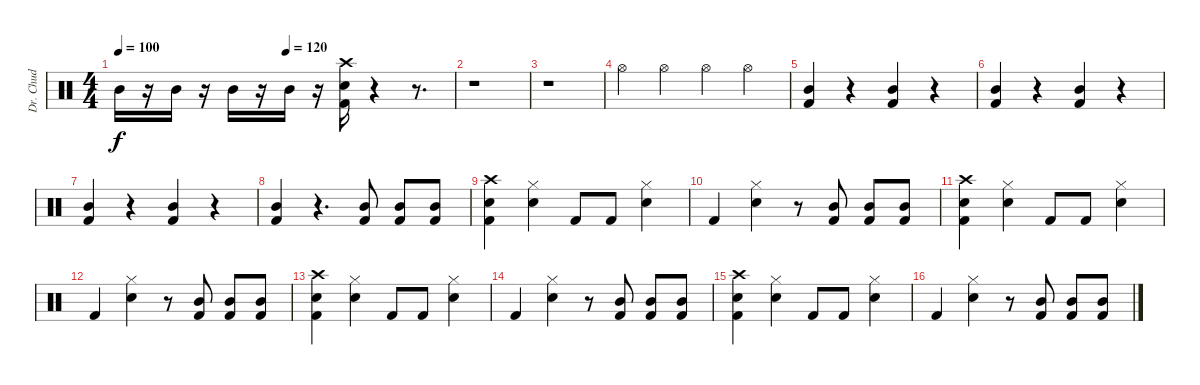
\track ("Dr. Chud" "Dr. Chud") {instrument percussion}
\staff {score}
\articulation defaults
\ts (4 4)
\tempo 100
\tempo (120 0.5)
\clef neutral
\ks c "Mid Tom (hit)".16{dy f}
r.16 "Mid Tom (hit)".16 r.16 "Mid Tom (hit)".16 r.16 "Mid Tom (hit)".16 r.16 ("Crash high (hit)" "Snare (hit) 2" "Kick (hit) 2").16 r.4 r.8{d} |
r.1 |
r.1 |
"Hi-Hat (open)".4 "Hi-Hat (open)".4 "Hi-Hat (open)".4 "Hi-Hat (open)".4 |
("Mid Tom (hit)" "Kick (hit) 2").4 r.4 ("Mid Tom (hit)" "Kick (hit) 2").4 r.4 |
("Mid Tom (hit)" "Kick (hit) 2").4 r.4 ("Mid Tom (hit)" "Kick (hit) 2").4 r.4 |
("Mid Tom (hit)" "Kick (hit) 2").4 r.4 ("Mid Tom (hit)" "Kick (hit) 2").4 r.4 |
("Mid Tom (hit)" "Kick (hit) 2").4 r.4{d} ("Mid Tom (hit)" "Kick (hit) 2").8 ("Mid Tom (hit)" "Kick (hit) 2").8 ("Mid Tom (hit)" "Kick (hit) 2").8 |
("Crash high (hit)" "Snare (hit) 2" "Kick (hit) 2").4 ("Hi-Hat (closed)" "Snare (hit) 2").4 "Kick (hit) 2".8 "Kick (hit) 2".8 ("Hi-Hat (closed)" "Snare (hit) 2").4 |
"Kick (hit) 2".4 ("Hi-Hat (closed)" "Snare (hit) 2").4 r.8 ("Mid Tom (hit)" "Kick (hit) 2").8 ("Mid Tom (hit)" "Kick (hit) 2").8 ("Mid Tom (hit)" "Kick (hit) 2").8 |
("Crash high (hit)" "Snare (hit) 2" "Kick (hit) 2").4 ("Hi-Hat (closed)" "Snare (hit) 2").4 "Kick (hit) 2".8 "Kick (hit) 2".8 ("Hi-Hat (closed)" "Snare (hit) 2").4 |
"Kick (hit) 2".4 ("Hi-Hat (closed)" "Snare (hit) 2").4 r.8 ("Mid Tom (hit)" "Kick (hit) 2").8 ("Mid Tom (hit)" "Kick (hit) 2").8 ("Mid Tom (hit)" "Kick (hit) 2").8 |
("Crash high (hit)" "Snare (hit) 2" "Kick (hit) 2").4 ("Hi-Hat (closed)" "Snare (hit) 2").4 "Kick (hit) 2".8 "Kick (hit) 2".8 ("Hi-Hat (closed)" "Snare (hit) 2").4 |
"Kick (hit) 2".4 ("Hi-Hat (closed)" "Snare (hit) 2").4 r.8 ("Mid Tom (hit)" "Kick (hit) 2").8 ("Mid Tom (hit)" "Kick (hit) 2").8 ("Mid Tom (hit)" "Kick (hit) 2").8 |
("Crash high (hit)" "Snare (hit) 2" "Kick (hit) 2").4 ("Hi-Hat (closed)" "Snare (hit) 2").4 "Kick (hit) 2".8 "Kick (hit) 2".8 ("Hi-Hat (closed)" "Snare (hit) 2").4 |
"Kick (hit) 2".4 ("Hi-Hat (closed)" "Snare (hit) 2").4 r.8 ("Mid Tom (hit)" "Kick (hit) 2").8 ("Mid Tom (hit)" "Kick (hit) 2").8 ("Mid Tom (hit)" "Kick (hit) 2").8
